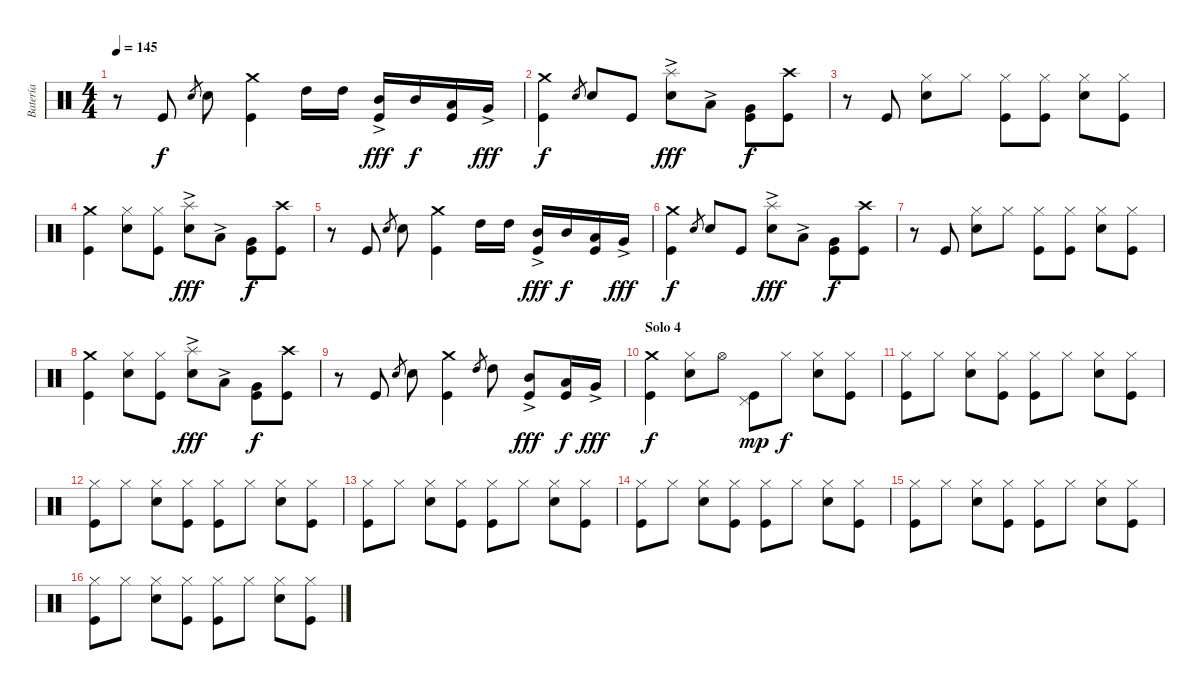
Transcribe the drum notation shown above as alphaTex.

\track ("Batería" "Batería") {instrument percussion}
\staff {score}
\articulation defaults
\ts (4 4)
\tempo 145
\clef neutral
\ks c
r.8{dy f} "Kick (hit)".8 "Electric Snare (hit)".8{gr} "Electric Snare (hit)".8 ("Kick (hit)" "Crash medium (hit)").4 "High Tom (hit)".16 "High Tom (hit)".16 ("Kick (hit)" "Mid Tom (hit)"{ac}).16{dy fff} "Mid Tom (hit)".16{dy f} ("Kick (hit)" "Low Tom (hit)").16 "Very Low Tom (hit)"{ac}.16{dy fff} |
("Kick (hit)" "Crash medium (hit)").4{dy f} "Electric Snare (hit)".8{gr} "Electric Snare (hit)".8 "Kick (hit)".8 ("Electric Snare (hit)" "Splash (hit)"{ac}).8{dy fff} "Low Tom (hit)"{ac}.8 ("Kick (hit)" "Very Low Tom (hit)").8{dy f} ("Kick (hit)" "Crash high (hit)").8 |
r.8 "Kick (hit)".8 ("Electric Snare (hit)" "Hi-Hat (closed)").8 "Hi-Hat (closed)".8 ("Kick (hit)" "Hi-Hat (closed)").8 ("Kick (hit)" "Hi-Hat (closed)").8 ("Electric Snare (hit)" "Hi-Hat (closed)").8 ("Kick (hit)" "Hi-Hat (closed)").8 |
("Kick (hit)" "Crash medium (hit)").4 ("Electric Snare (hit)" "Hi-Hat (closed)").8 ("Kick (hit)" "Hi-Hat (closed)").8 ("Electric Snare (hit)" "Splash (hit)"{ac}).8{dy fff} "Low Tom (hit)"{ac}.8 ("Kick (hit)" "Very Low Tom (hit)").8{dy f} ("Kick (hit)" "Crash high (hit)").8 |
r.8 "Kick (hit)".8 "Electric Snare (hit)".8{gr} "Electric Snare (hit)".8 ("Kick (hit)" "Crash medium (hit)").4 "High Tom (hit)".16 "High Tom (hit)".16 ("Kick (hit)" "Mid Tom (hit)"{ac}).16{dy fff} "Mid Tom (hit)".16{dy f} ("Kick (hit)" "Low Tom (hit)").16 "Very Low Tom (hit)"{ac}.16{dy fff} |
("Kick (hit)" "Crash medium (hit)").4{dy f} "Electric Snare (hit)".8{gr} "Electric Snare (hit)".8 "Kick (hit)".8 ("Electric Snare (hit)" "Splash (hit)"{ac}).8{dy fff} "Low Tom (hit)"{ac}.8 ("Kick (hit)" "Very Low Tom (hit)").8{dy f} ("Kick (hit)" "Crash high (hit)").8 |
r.8 "Kick (hit)".8 ("Electric Snare (hit)" "Hi-Hat (closed)").8 "Hi-Hat (closed)".8 ("Kick (hit)" "Hi-Hat (closed)").8 ("Kick (hit)" "Hi-Hat (closed)").8 ("Electric Snare (hit)" "Hi-Hat (closed)").8 ("Kick (hit)" "Hi-Hat (closed)").8 |
("Kick (hit)" "Crash medium (hit)").4 ("Electric Snare (hit)" "Hi-Hat (closed)").8 ("Kick (hit)" "Hi-Hat (closed)").8 ("Electric Snare (hit)" "Splash (hit)"{ac}).8{dy fff} "Low Tom (hit)"{ac}.8 ("Kick (hit)" "Very Low Tom (hit)").8{dy f} ("Kick (hit)" "Crash high (hit)").8 |
r.8 "Kick (hit)".8 "Electric Snare (hit)".8{gr} "Electric Snare (hit)".8 ("Kick (hit)" "Crash medium (hit)").4 "High Tom (hit)".8{gr} "High Tom (hit)".8 ("Kick (hit)" "Mid Tom (hit)"{ac}).8{dy fff} ("Kick (hit)" "Low Tom (hit)").16{dy f} "Very Low Tom (hit)"{ac}.16{dy fff} |
\section ("" "Solo 4")
("Kick (hit)" "Crash medium (hit)").4{dy f} ("Electric Snare (hit)" "Hi-Hat (closed)").8 "Hi-Hat (open)".8 ("Kick (hit)" "Pedal Hi-Hat (hit)").8{dy mp} "Hi-Hat (closed)".8{dy f} ("Electric Snare (hit)" "Hi-Hat (closed)").8 ("Kick (hit)" "Hi-Hat (closed)").8 |
("Kick (hit)" "Hi-Hat (closed)").8 "Hi-Hat (closed)".8 ("Electric Snare (hit)" "Hi-Hat (closed)").8 ("Kick (hit)" "Hi-Hat (closed)").8 ("Kick (hit)" "Hi-Hat (closed)").8 "Hi-Hat (closed)".8 ("Electric Snare (hit)" "Hi-Hat (closed)").8 ("Kick (hit)" "Hi-Hat (closed)").8 |
("Kick (hit)" "Hi-Hat (closed)").8 "Hi-Hat (closed)".8 ("Electric Snare (hit)" "Hi-Hat (closed)").8 ("Kick (hit)" "Hi-Hat (closed)").8 ("Kick (hit)" "Hi-Hat (closed)").8 "Hi-Hat (closed)".8 ("Electric Snare (hit)" "Hi-Hat (closed)").8 ("Kick (hit)" "Hi-Hat (closed)").8 |
("Kick (hit)" "Hi-Hat (closed)").8 "Hi-Hat (closed)".8 ("Electric Snare (hit)" "Hi-Hat (closed)").8 ("Kick (hit)" "Hi-Hat (closed)").8 ("Kick (hit)" "Hi-Hat (closed)").8 "Hi-Hat (closed)".8 ("Electric Snare (hit)" "Hi-Hat (closed)").8 ("Kick (hit)" "Hi-Hat (closed)").8 |
("Kick (hit)" "Hi-Hat (closed)").8 "Hi-Hat (closed)".8 ("Electric Snare (hit)" "Hi-Hat (closed)").8 ("Kick (hit)" "Hi-Hat (closed)").8 ("Kick (hit)" "Hi-Hat (closed)").8 "Hi-Hat (closed)".8 ("Electric Snare (hit)" "Hi-Hat (closed)").8 ("Kick (hit)" "Hi-Hat (closed)").8 |
("Kick (hit)" "Hi-Hat (closed)").8 "Hi-Hat (closed)".8 ("Electric Snare (hit)" "Hi-Hat (closed)").8 ("Kick (hit)" "Hi-Hat (closed)").8 ("Kick (hit)" "Hi-Hat (closed)").8 "Hi-Hat (closed)".8 ("Electric Snare (hit)" "Hi-Hat (closed)").8 ("Kick (hit)" "Hi-Hat (closed)").8 |
("Kick (hit)" "Hi-Hat (closed)").8 "Hi-Hat (closed)".8 ("Electric Snare (hit)" "Hi-Hat (closed)").8 ("Kick (hit)" "Hi-Hat (closed)").8 ("Kick (hit)" "Hi-Hat (closed)").8 "Hi-Hat (closed)".8 ("Electric Snare (hit)" "Hi-Hat (closed)").8 ("Kick (hit)" "Hi-Hat (closed)").8
